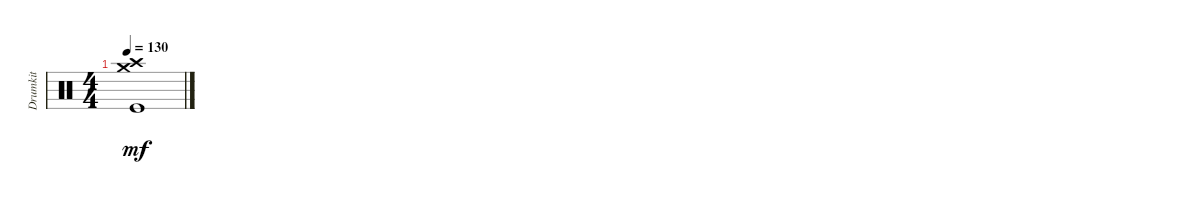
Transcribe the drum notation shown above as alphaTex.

\track ("Drumkit" "Drumkit") {instrument percussion}
\staff {score}
\articulation defaults
\ts (4 4)
\tempo 130
\clef neutral
\ks c
("Kick (hit)" "Crash medium (hit)" "Crash high (hit)").1{dy mf}
